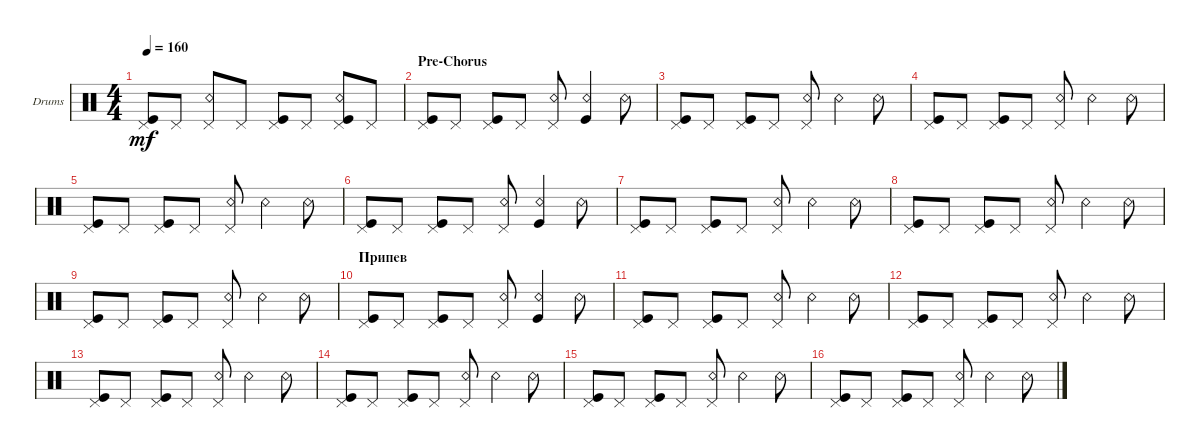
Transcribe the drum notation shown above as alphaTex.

\bracketExtendMode groupsimilarinstruments
\firstSystemTrackNameOrientation horizontal
\otherSystemsTrackNameOrientation horizontal
\track ("Drumkit" "Drums") {instrument percussion}
\staff {score}
\articulation defaults
\ts (4 4)
\tempo 160
\clef neutral
\ks c
("Pedal Hi-Hat (hit)" "Kick (hit)").8{dy mf} "Pedal Hi-Hat (hit)".8 ("Pedal Hi-Hat (hit)" "Snare (rim shot)").8 "Pedal Hi-Hat (hit)".8 ("Pedal Hi-Hat (hit)" "Kick (hit)").8 "Pedal Hi-Hat (hit)".8 ("Pedal Hi-Hat (hit)" "Kick (hit)" "Snare (rim shot)").8 "Pedal Hi-Hat (hit)".8 |
\section ("" "Pre-Chorus")
("Pedal Hi-Hat (hit)" "Kick (hit)").8 "Pedal Hi-Hat (hit)".8 ("Pedal Hi-Hat (hit)" "Kick (hit)").8 "Pedal Hi-Hat (hit)".8 ("Pedal Hi-Hat (hit)" "Snare (rim shot)").8 ("Snare (rim shot)" "Kick (hit)").4 "Snare (rim shot)".8 |
("Pedal Hi-Hat (hit)" "Kick (hit)").8 "Pedal Hi-Hat (hit)".8 ("Pedal Hi-Hat (hit)" "Kick (hit)").8 "Pedal Hi-Hat (hit)".8 ("Pedal Hi-Hat (hit)" "Snare (rim shot)").8 "Snare (rim shot)".4 "Snare (rim shot)".8 |
("Pedal Hi-Hat (hit)" "Kick (hit)").8 "Pedal Hi-Hat (hit)".8 ("Pedal Hi-Hat (hit)" "Kick (hit)").8 "Pedal Hi-Hat (hit)".8 ("Pedal Hi-Hat (hit)" "Snare (rim shot)").8 "Snare (rim shot)".4 "Snare (rim shot)".8 |
("Pedal Hi-Hat (hit)" "Kick (hit)").8 "Pedal Hi-Hat (hit)".8 ("Pedal Hi-Hat (hit)" "Kick (hit)").8 "Pedal Hi-Hat (hit)".8 ("Pedal Hi-Hat (hit)" "Snare (rim shot)").8 "Snare (rim shot)".4 "Snare (rim shot)".8 |
("Pedal Hi-Hat (hit)" "Kick (hit)").8 "Pedal Hi-Hat (hit)".8 ("Pedal Hi-Hat (hit)" "Kick (hit)").8 "Pedal Hi-Hat (hit)".8 ("Pedal Hi-Hat (hit)" "Snare (rim shot)").8 ("Snare (rim shot)" "Kick (hit)").4 "Snare (rim shot)".8 |
("Pedal Hi-Hat (hit)" "Kick (hit)").8 "Pedal Hi-Hat (hit)".8 ("Pedal Hi-Hat (hit)" "Kick (hit)").8 "Pedal Hi-Hat (hit)".8 ("Pedal Hi-Hat (hit)" "Snare (rim shot)").8 "Snare (rim shot)".4 "Snare (rim shot)".8 |
("Pedal Hi-Hat (hit)" "Kick (hit)").8 "Pedal Hi-Hat (hit)".8 ("Pedal Hi-Hat (hit)" "Kick (hit)").8 "Pedal Hi-Hat (hit)".8 ("Pedal Hi-Hat (hit)" "Snare (rim shot)").8 "Snare (rim shot)".4 "Snare (rim shot)".8 |
("Pedal Hi-Hat (hit)" "Kick (hit)").8 "Pedal Hi-Hat (hit)".8 ("Pedal Hi-Hat (hit)" "Kick (hit)").8 "Pedal Hi-Hat (hit)".8 ("Pedal Hi-Hat (hit)" "Snare (rim shot)").8 "Snare (rim shot)".4 "Snare (rim shot)".8 |
\section ("" "Припев")
("Pedal Hi-Hat (hit)" "Kick (hit)").8 "Pedal Hi-Hat (hit)".8 ("Pedal Hi-Hat (hit)" "Kick (hit)").8 "Pedal Hi-Hat (hit)".8 ("Pedal Hi-Hat (hit)" "Snare (rim shot)").8 ("Snare (rim shot)" "Kick (hit)").4 "Snare (rim shot)".8 |
("Pedal Hi-Hat (hit)" "Kick (hit)").8 "Pedal Hi-Hat (hit)".8 ("Pedal Hi-Hat (hit)" "Kick (hit)").8 "Pedal Hi-Hat (hit)".8 ("Pedal Hi-Hat (hit)" "Snare (rim shot)").8 "Snare (rim shot)".4 "Snare (rim shot)".8 |
("Pedal Hi-Hat (hit)" "Kick (hit)").8 "Pedal Hi-Hat (hit)".8 ("Pedal Hi-Hat (hit)" "Kick (hit)").8 "Pedal Hi-Hat (hit)".8 ("Pedal Hi-Hat (hit)" "Snare (rim shot)").8 "Snare (rim shot)".4 "Snare (rim shot)".8 |
("Pedal Hi-Hat (hit)" "Kick (hit)").8 "Pedal Hi-Hat (hit)".8 ("Pedal Hi-Hat (hit)" "Kick (hit)").8 "Pedal Hi-Hat (hit)".8 ("Pedal Hi-Hat (hit)" "Snare (rim shot)").8 "Snare (rim shot)".4 "Snare (rim shot)".8 |
("Pedal Hi-Hat (hit)" "Kick (hit)").8 "Pedal Hi-Hat (hit)".8 ("Pedal Hi-Hat (hit)" "Kick (hit)").8 "Pedal Hi-Hat (hit)".8 ("Pedal Hi-Hat (hit)" "Snare (rim shot)").8 "Snare (rim shot)".4 "Snare (rim shot)".8 |
("Pedal Hi-Hat (hit)" "Kick (hit)").8 "Pedal Hi-Hat (hit)".8 ("Pedal Hi-Hat (hit)" "Kick (hit)").8 "Pedal Hi-Hat (hit)".8 ("Pedal Hi-Hat (hit)" "Snare (rim shot)").8 "Snare (rim shot)".4 "Snare (rim shot)".8 |
("Pedal Hi-Hat (hit)" "Kick (hit)").8 "Pedal Hi-Hat (hit)".8 ("Pedal Hi-Hat (hit)" "Kick (hit)").8 "Pedal Hi-Hat (hit)".8 ("Pedal Hi-Hat (hit)" "Snare (rim shot)").8 "Snare (rim shot)".4 "Snare (rim shot)".8
